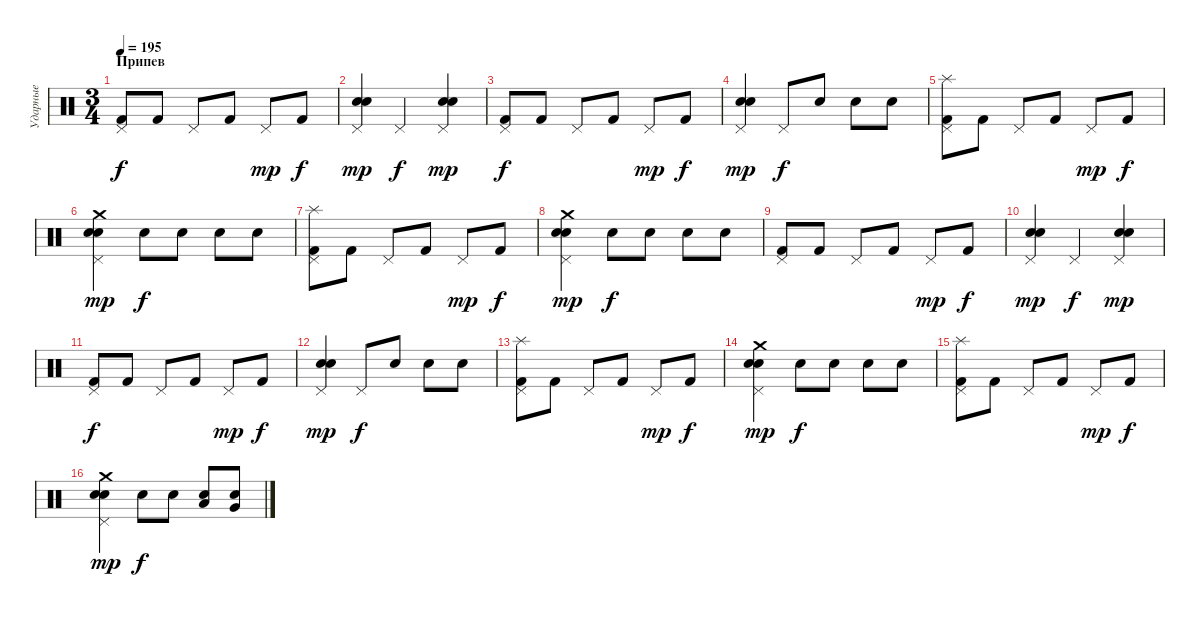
\track ("Ударные" "Ударные") {instrument percussion}
\staff {score}
\articulation defaults
\ts (3 4)
\section ("" "Припев")
\tempo 195
\clef neutral
\ks c
("Pedal Hi-Hat (hit)" "Kick (hit) 2").8{dy f} "Kick (hit) 2".8 "Pedal Hi-Hat (hit)".8 "Kick (hit) 2".8 "Pedal Hi-Hat (hit)".8{dy mp} "Kick (hit) 2".8{dy f} |
("Pedal Hi-Hat (hit)" "Electric Snare (hit)" "Snare (hit) 2").4{dy mp} "Pedal Hi-Hat (hit)".4{dy f} ("Pedal Hi-Hat (hit)" "Electric Snare (hit)" "Snare (hit) 2").4{dy mp} |
("Pedal Hi-Hat (hit)" "Kick (hit) 2").8{dy f} "Kick (hit) 2".8 "Pedal Hi-Hat (hit)".8 "Kick (hit) 2".8 "Pedal Hi-Hat (hit)".8{dy mp} "Kick (hit) 2".8{dy f} |
("Pedal Hi-Hat (hit)" "Electric Snare (hit)" "Snare (hit) 2").4{dy mp} "Pedal Hi-Hat (hit)".8{dy f} "Electric Snare (hit)".8 "Electric Snare (hit)".8 "Electric Snare (hit)".8 |
("Pedal Hi-Hat (hit)" "Splash (hit)" "Kick (hit) 2").8 "Kick (hit) 2".8 "Pedal Hi-Hat (hit)".8 "Kick (hit) 2".8 "Pedal Hi-Hat (hit)".8{dy mp} "Kick (hit) 2".8{dy f} |
("Pedal Hi-Hat (hit)" "Crash medium (hit)" "Electric Snare (hit)" "Snare (hit) 2").4{dy mp} "Electric Snare (hit)".8{dy f} "Electric Snare (hit)".8 "Electric Snare (hit)".8 "Electric Snare (hit)".8 |
("Pedal Hi-Hat (hit)" "Splash (hit)" "Kick (hit) 2").8 "Kick (hit) 2".8 "Pedal Hi-Hat (hit)".8 "Kick (hit) 2".8 "Pedal Hi-Hat (hit)".8{dy mp} "Kick (hit) 2".8{dy f} |
("Pedal Hi-Hat (hit)" "Crash medium (hit)" "Electric Snare (hit)" "Snare (hit) 2").4{dy mp} "Electric Snare (hit)".8{dy f} "Electric Snare (hit)".8 "Electric Snare (hit)".8 "Electric Snare (hit)".8 |
("Pedal Hi-Hat (hit)" "Kick (hit) 2").8 "Kick (hit) 2".8 "Pedal Hi-Hat (hit)".8 "Kick (hit) 2".8 "Pedal Hi-Hat (hit)".8{dy mp} "Kick (hit) 2".8{dy f} |
("Pedal Hi-Hat (hit)" "Electric Snare (hit)" "Snare (hit) 2").4{dy mp} "Pedal Hi-Hat (hit)".4{dy f} ("Pedal Hi-Hat (hit)" "Electric Snare (hit)" "Snare (hit) 2").4{dy mp} |
("Pedal Hi-Hat (hit)" "Kick (hit) 2").8{dy f} "Kick (hit) 2".8 "Pedal Hi-Hat (hit)".8 "Kick (hit) 2".8 "Pedal Hi-Hat (hit)".8{dy mp} "Kick (hit) 2".8{dy f} |
("Pedal Hi-Hat (hit)" "Electric Snare (hit)" "Snare (hit) 2").4{dy mp} "Pedal Hi-Hat (hit)".8{dy f} "Electric Snare (hit)".8 "Electric Snare (hit)".8 "Electric Snare (hit)".8 |
("Pedal Hi-Hat (hit)" "Splash (hit)" "Kick (hit) 2").8 "Kick (hit) 2".8 "Pedal Hi-Hat (hit)".8 "Kick (hit) 2".8 "Pedal Hi-Hat (hit)".8{dy mp} "Kick (hit) 2".8{dy f} |
("Pedal Hi-Hat (hit)" "Crash medium (hit)" "Electric Snare (hit)" "Snare (hit) 2").4{dy mp} "Electric Snare (hit)".8{dy f} "Electric Snare (hit)".8 "Electric Snare (hit)".8 "Electric Snare (hit)".8 |
("Pedal Hi-Hat (hit)" "Splash (hit)" "Kick (hit) 2").8 "Kick (hit) 2".8 "Pedal Hi-Hat (hit)".8 "Kick (hit) 2".8 "Pedal Hi-Hat (hit)".8{dy mp} "Kick (hit) 2".8{dy f} |
("Pedal Hi-Hat (hit)" "Crash medium (hit)" "Electric Snare (hit)" "Snare (hit) 2").4{dy mp} "Electric Snare (hit)".8{dy f} "Electric Snare (hit)".8 ("Electric Snare (hit)" "Low Tom (hit)").8 ("Electric Snare (hit)" "Very Low Tom (hit)").8
